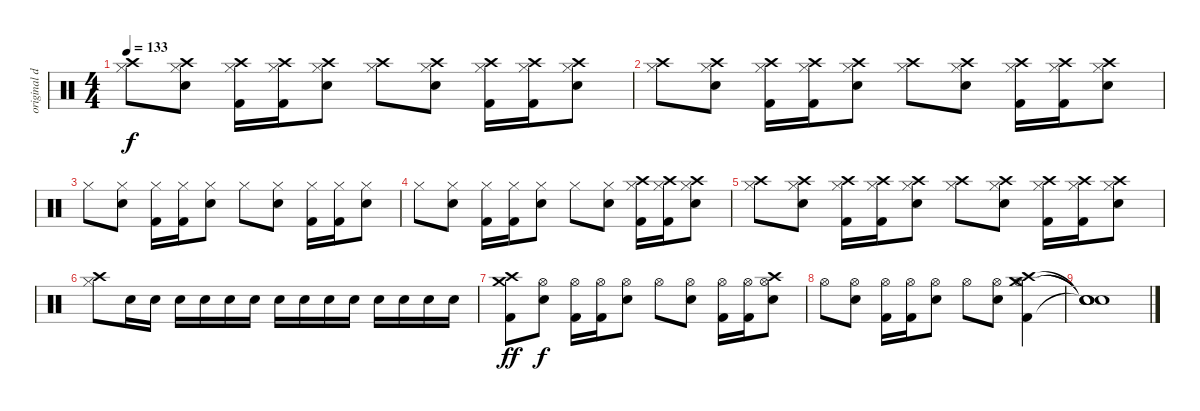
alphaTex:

\track ("original drums" "original d") {instrument percussion}
\staff {score}
\articulation defaults
\ts (4 4)
\tempo 133
\clef neutral
\ks c
("Crash high (hit)" "Hi-Hat (closed)").8{dy f} ("Crash high (hit)" "Hi-Hat (closed)" "Electric Snare (hit)").8 ("Crash high (hit)" "Hi-Hat (closed)" "Kick (hit) 2").16 ("Crash high (hit)" "Hi-Hat (closed)" "Kick (hit) 2").16 ("Crash high (hit)" "Hi-Hat (closed)" "Electric Snare (hit)").8 ("Crash high (hit)" "Hi-Hat (closed)").8 ("Crash high (hit)" "Hi-Hat (closed)" "Electric Snare (hit)").8 ("Crash high (hit)" "Hi-Hat (closed)" "Kick (hit) 2").16 ("Crash high (hit)" "Hi-Hat (closed)" "Kick (hit) 2").16 ("Crash high (hit)" "Hi-Hat (closed)" "Electric Snare (hit)").8 |
("Crash high (hit)" "Hi-Hat (closed)").8 ("Crash high (hit)" "Hi-Hat (closed)" "Electric Snare (hit)").8 ("Crash high (hit)" "Hi-Hat (closed)" "Kick (hit) 2").16 ("Crash high (hit)" "Hi-Hat (closed)" "Kick (hit) 2").16 ("Crash high (hit)" "Hi-Hat (closed)" "Electric Snare (hit)").8 ("Crash high (hit)" "Hi-Hat (closed)").8 ("Crash high (hit)" "Hi-Hat (closed)" "Electric Snare (hit)").8 ("Crash high (hit)" "Hi-Hat (closed)" "Kick (hit) 2").16 ("Crash high (hit)" "Hi-Hat (closed)" "Kick (hit) 2").16 ("Crash high (hit)" "Hi-Hat (closed)" "Electric Snare (hit)").8 |
"Hi-Hat (closed)".8 ("Hi-Hat (closed)" "Electric Snare (hit)").8 ("Hi-Hat (closed)" "Kick (hit) 2").16 ("Hi-Hat (closed)" "Kick (hit) 2").16 ("Hi-Hat (closed)" "Electric Snare (hit)").8 "Hi-Hat (closed)".8 ("Hi-Hat (closed)" "Electric Snare (hit)").8 ("Hi-Hat (closed)" "Kick (hit) 2").16 ("Hi-Hat (closed)" "Kick (hit) 2").16 ("Hi-Hat (closed)" "Electric Snare (hit)").8 |
"Hi-Hat (closed)".8 ("Hi-Hat (closed)" "Electric Snare (hit)").8 ("Hi-Hat (closed)" "Kick (hit) 2").16 ("Hi-Hat (closed)" "Kick (hit) 2").16 ("Hi-Hat (closed)" "Electric Snare (hit)").8 "Hi-Hat (closed)".8 ("Hi-Hat (closed)" "Electric Snare (hit)").8 ("Crash high (hit)" "Hi-Hat (closed)" "Kick (hit) 2").16 ("Crash high (hit)" "Hi-Hat (closed)" "Kick (hit) 2").16 ("Crash high (hit)" "Hi-Hat (closed)" "Electric Snare (hit)").8 |
("Crash high (hit)" "Hi-Hat (closed)").8 ("Crash high (hit)" "Hi-Hat (closed)" "Electric Snare (hit)").8 ("Crash high (hit)" "Hi-Hat (closed)" "Kick (hit) 2").16 ("Crash high (hit)" "Hi-Hat (closed)" "Kick (hit) 2").16 ("Crash high (hit)" "Hi-Hat (closed)" "Electric Snare (hit)").8 ("Crash high (hit)" "Hi-Hat (closed)").8 ("Crash high (hit)" "Hi-Hat (closed)" "Electric Snare (hit)").8 ("Crash high (hit)" "Hi-Hat (closed)" "Kick (hit) 2").16 ("Crash high (hit)" "Hi-Hat (closed)" "Kick (hit) 2").16 ("Crash high (hit)" "Hi-Hat (closed)" "Electric Snare (hit)").8 |
("Crash high (hit)" "Hi-Hat (closed)").8 "Electric Snare (hit)".16 "Electric Snare (hit)".16 "Electric Snare (hit)".16 "Electric Snare (hit)".16 "Electric Snare (hit)".16 "Electric Snare (hit)".16 "Electric Snare (hit)".16 "Electric Snare (hit)".16 "Electric Snare (hit)".16 "Electric Snare (hit)".16 "Electric Snare (hit)".16 "Electric Snare (hit)".16 "Electric Snare (hit)".16 "Electric Snare (hit)".16 |
("Crash high (hit)" "Crash medium (hit)" "Kick (hit) 2").8{dy ff} ("Hi-Hat (open)" "Electric Snare (hit)").8{dy f} ("Hi-Hat (open)" "Kick (hit) 2").16 ("Hi-Hat (open)" "Kick (hit) 2").16 ("Hi-Hat (open)" "Electric Snare (hit)").8 "Hi-Hat (open)".8 ("Hi-Hat (open)" "Electric Snare (hit)").8 ("Hi-Hat (open)" "Kick (hit) 2").16 ("Hi-Hat (open)" "Kick (hit) 2").16 ("Hi-Hat (open)" "Crash high (hit)" "Electric Snare (hit)").8 |
"Hi-Hat (open)".8 ("Hi-Hat (open)" "Electric Snare (hit)").8 ("Hi-Hat (open)" "Kick (hit) 2").16 ("Hi-Hat (open)" "Kick (hit) 2").16 ("Hi-Hat (open)" "Electric Snare (hit)").8 "Hi-Hat (open)".8 ("Hi-Hat (open)" "Electric Snare (hit)").8 ("Hi-Hat (open)" "Crash high (hit)" "Crash medium (hit)" "Kick (hit) 2").4 |
("Snare (hit)"{t} "Snare (hit)"{t} "Snare (hit)"{t} "Snare (hit)"{t}).1
